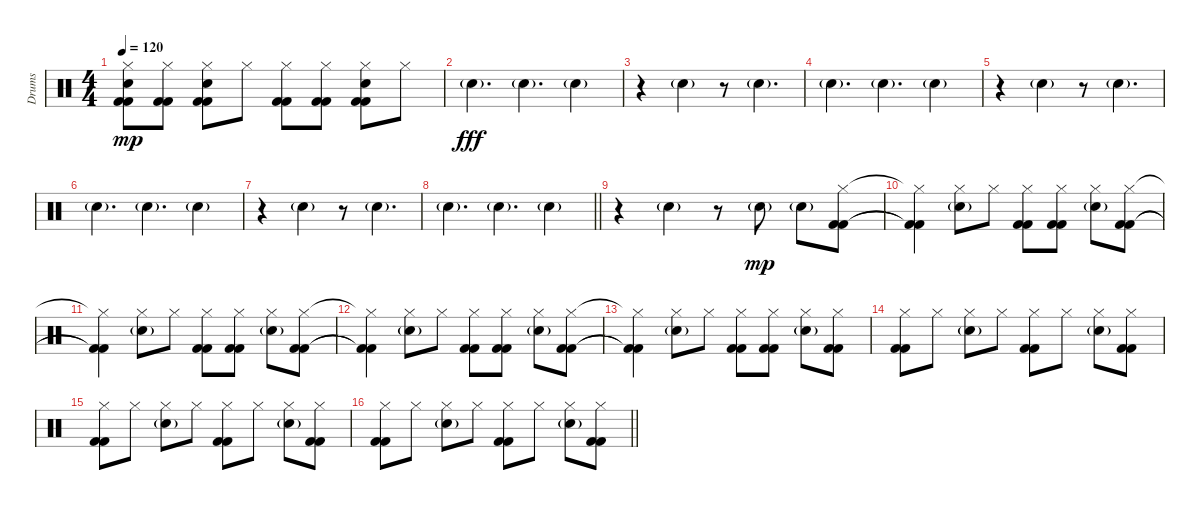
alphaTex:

\track ("Drums" "Drums") {instrument percussion}
\staff {score}
\articulation defaults
\ts (4 4)
\tempo 120
\clef neutral
\ks c
("Hi-Hat (closed)" "Hand Clap (hit)" "Kick (hit) 2" "Kick (hit) 2").8{dy mp} ("Hi-Hat (closed)" "Kick (hit) 2" "Kick (hit) 2").8 ("Hi-Hat (closed)" "Hand Clap (hit)" "Kick (hit) 2" "Kick (hit) 2").8 "Hi-Hat (closed)".8 ("Hi-Hat (closed)" "Kick (hit) 2" "Kick (hit) 2").8 ("Hi-Hat (closed)" "Kick (hit) 2" "Kick (hit) 2").8 ("Hi-Hat (closed)" "Hand Clap (hit)" "Kick (hit) 2" "Kick (hit) 2").8 "Hi-Hat (closed)".8 |
"Snare (hit) 2"{g}.4{d dy fff} "Snare (hit) 2"{g}.4{d} "Snare (hit) 2"{g}.4 |
r.4 "Snare (hit) 2"{g}.4 r.8 "Snare (hit) 2"{g}.4{d} |
"Snare (hit) 2"{g}.4{d} "Snare (hit) 2"{g}.4{d} "Snare (hit) 2"{g}.4 |
r.4 "Snare (hit) 2"{g}.4 r.8 "Snare (hit) 2"{g}.4{d} |
"Snare (hit) 2"{g}.4{d} "Snare (hit) 2"{g}.4{d} "Snare (hit) 2"{g}.4 |
r.4 "Snare (hit) 2"{g}.4 r.8 "Snare (hit) 2"{g}.4{d} |
\barLineRight lightlight "Snare (hit) 2"{g}.4{d} "Snare (hit) 2"{g}.4{d} "Snare (hit) 2"{g}.4
|
r.4 "Snare (hit) 2"{g}.4 r.8 "Snare (hit) 2"{g}.8{dy mp} "Snare (hit) 2"{g}.8 ("Hi-Hat (closed)" "Kick (hit) 2" "Kick (hit) 2").8 |
("Hi-Hat (closed)"{t} "Kick (hit) 2"{t} "Kick (hit) 2"{t}).4 ("Hi-Hat (closed)" "Snare (hit) 2"{g}).8 "Hi-Hat (closed)".8 ("Hi-Hat (closed)" "Kick (hit) 2" "Kick (hit) 2").8 ("Hi-Hat (closed)" "Kick (hit) 2" "Kick (hit) 2").8 ("Hi-Hat (closed)" "Snare (hit) 2"{g}).8 ("Hi-Hat (closed)" "Kick (hit) 2" "Kick (hit) 2").8 |
("Hi-Hat (closed)"{t} "Kick (hit) 2"{t} "Kick (hit) 2"{t}).4 ("Hi-Hat (closed)" "Snare (hit) 2"{g}).8 "Hi-Hat (closed)".8 ("Hi-Hat (closed)" "Kick (hit) 2" "Kick (hit) 2").8 ("Hi-Hat (closed)" "Kick (hit) 2" "Kick (hit) 2").8 ("Hi-Hat (closed)" "Snare (hit) 2"{g}).8 ("Hi-Hat (closed)" "Kick (hit) 2" "Kick (hit) 2").8 |
("Hi-Hat (closed)"{t} "Kick (hit) 2"{t} "Kick (hit) 2"{t}).4 ("Hi-Hat (closed)" "Snare (hit) 2"{g}).8 "Hi-Hat (closed)".8 ("Hi-Hat (closed)" "Kick (hit) 2" "Kick (hit) 2").8 ("Hi-Hat (closed)" "Kick (hit) 2" "Kick (hit) 2").8 ("Hi-Hat (closed)" "Snare (hit) 2"{g}).8 ("Hi-Hat (closed)" "Kick (hit) 2" "Kick (hit) 2").8 |
("Hi-Hat (closed)"{t} "Kick (hit) 2"{t} "Kick (hit) 2"{t}).4 ("Hi-Hat (closed)" "Snare (hit) 2"{g}).8 "Hi-Hat (closed)".8 ("Hi-Hat (closed)" "Kick (hit) 2" "Kick (hit) 2").8 ("Hi-Hat (closed)" "Kick (hit) 2" "Kick (hit) 2").8 ("Hi-Hat (closed)" "Snare (hit) 2"{g}).8 ("Hi-Hat (closed)" "Kick (hit) 2" "Kick (hit) 2").8 |
("Hi-Hat (closed)" "Kick (hit) 2" "Kick (hit) 2").8 "Hi-Hat (closed)".8 ("Hi-Hat (closed)" "Snare (hit) 2"{g}).8 "Hi-Hat (closed)".8 ("Hi-Hat (closed)" "Kick (hit) 2" "Kick (hit) 2").8 "Hi-Hat (closed)".8 ("Hi-Hat (closed)" "Snare (hit) 2"{g}).8 ("Hi-Hat (closed)" "Kick (hit) 2" "Kick (hit) 2").8 |
("Hi-Hat (closed)" "Kick (hit) 2" "Kick (hit) 2").8 "Hi-Hat (closed)".8 ("Hi-Hat (closed)" "Snare (hit) 2"{g}).8 "Hi-Hat (closed)".8 ("Hi-Hat (closed)" "Kick (hit) 2" "Kick (hit) 2").8 "Hi-Hat (closed)".8 ("Hi-Hat (closed)" "Snare (hit) 2"{g}).8 ("Hi-Hat (closed)" "Kick (hit) 2" "Kick (hit) 2").8 |
\barLineRight lightlight
("Hi-Hat (closed)" "Kick (hit) 2" "Kick (hit) 2").8 "Hi-Hat (closed)".8 ("Hi-Hat (closed)" "Snare (hit) 2"{g}).8 "Hi-Hat (closed)".8 ("Hi-Hat (closed)" "Kick (hit) 2" "Kick (hit) 2").8 "Hi-Hat (closed)".8 ("Hi-Hat (closed)" "Snare (hit) 2"{g}).8 ("Hi-Hat (closed)" "Kick (hit) 2" "Kick (hit) 2").8
